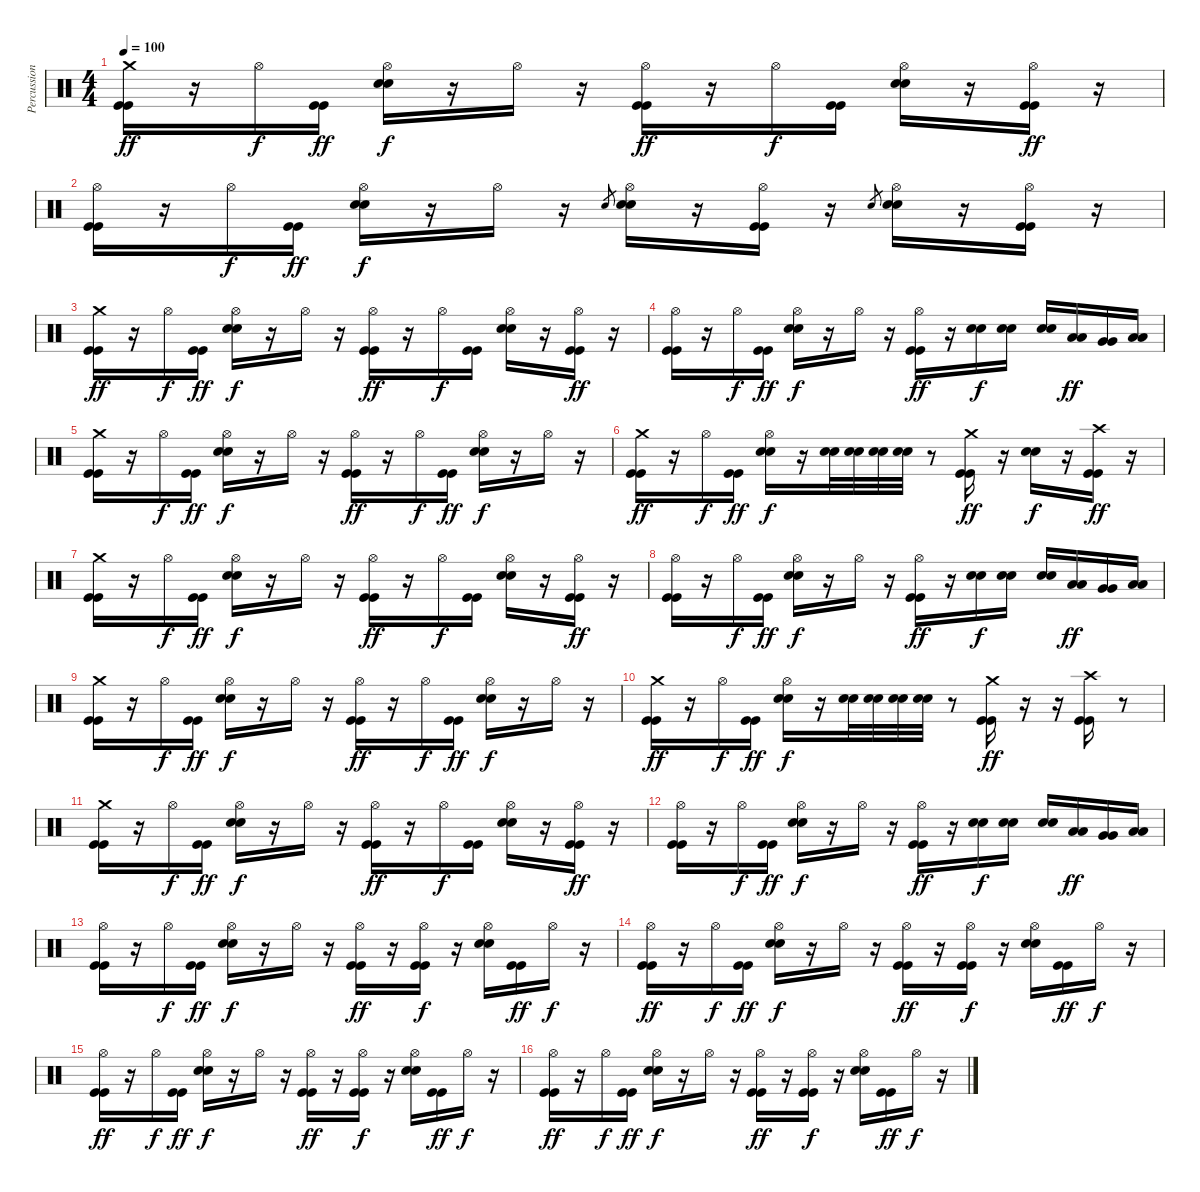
\track ("Percussions" "Percussion") {instrument percussion}
\staff {score}
\articulation defaults
\ts (4 4)
\tempo 100
\clef neutral
\ks c
("Crash medium (hit)" "Kick (hit)" "Kick (hit)").16{dy ff} r.16 "Hi-Hat (open)".16{dy f} ("Kick (hit)" "Kick (hit)").16{dy ff} ("Hi-Hat (open)" "Electric Snare (hit)" "Electric Snare (hit)").16{dy f} r.16 "Hi-Hat (open)".16 r.16 ("Hi-Hat (open)" "Kick (hit)" "Kick (hit)").16{dy ff} r.16 "Hi-Hat (open)".16{dy f} ("Kick (hit)" "Kick (hit)").16 ("Hi-Hat (open)" "Electric Snare (hit)" "Electric Snare (hit)").16 r.16 ("Hi-Hat (open)" "Kick (hit)" "Kick (hit)").16{dy ff} r.16 |
("Hi-Hat (open)" "Kick (hit)" "Kick (hit)").16 r.16 "Hi-Hat (open)".16{dy f} ("Kick (hit)" "Kick (hit)").16{dy ff} ("Hi-Hat (open)" "Electric Snare (hit)" "Electric Snare (hit)").16{dy f} r.16 "Hi-Hat (open)".16 r.16 "Electric Snare (hit)".8{gr} ("Hi-Hat (open)" "Electric Snare (hit)" "Electric Snare (hit)").16 r.16 ("Hi-Hat (open)" "Kick (hit)" "Kick (hit)").16 r.16 "Electric Snare (hit)".8{gr} ("Hi-Hat (open)" "Electric Snare (hit)" "Electric Snare (hit)").16 r.16 ("Hi-Hat (open)" "Kick (hit)" "Kick (hit)").16 r.16 |
("Crash medium (hit)" "Kick (hit)" "Kick (hit)").16{dy ff} r.16 "Hi-Hat (open)".16{dy f} ("Kick (hit)" "Kick (hit)").16{dy ff} ("Hi-Hat (open)" "Electric Snare (hit)" "Electric Snare (hit)").16{dy f} r.16 "Hi-Hat (open)".16 r.16 ("Hi-Hat (open)" "Kick (hit)" "Kick (hit)").16{dy ff} r.16 "Hi-Hat (open)".16{dy f} ("Kick (hit)" "Kick (hit)").16 ("Hi-Hat (open)" "Electric Snare (hit)" "Electric Snare (hit)").16 r.16 ("Hi-Hat (open)" "Kick (hit)" "Kick (hit)").16{dy ff} r.16 |
("Hi-Hat (open)" "Kick (hit)" "Kick (hit)").16 r.16 "Hi-Hat (open)".16{dy f} ("Kick (hit)" "Kick (hit)").16{dy ff} ("Hi-Hat (open)" "Electric Snare (hit)" "Electric Snare (hit)").16{dy f} r.16 "Hi-Hat (open)".16 r.16 ("Hi-Hat (open)" "Kick (hit)" "Kick (hit)").16{dy ff} r.16 ("Electric Snare (hit)" "Electric Snare (hit)").16{dy f} ("Electric Snare (hit)" "Electric Snare (hit)").16 ("Electric Snare (hit)" "Electric Snare (hit)").16 ("Low Tom (hit)" "Low Tom (hit)").16{dy ff} ("Very Low Tom (hit)" "Very Low Tom (hit)").16 ("Low Floor Tom (hit)" "Low Floor Tom (hit)").16 |
("Crash medium (hit)" "Kick (hit)" "Kick (hit)").16 r.16 "Hi-Hat (open)".16{dy f} ("Kick (hit)" "Kick (hit)").16{dy ff} ("Hi-Hat (open)" "Electric Snare (hit)" "Electric Snare (hit)").16{dy f} r.16 "Hi-Hat (open)".16 r.16 ("Hi-Hat (open)" "Kick (hit)" "Kick (hit)").16{dy ff} r.16 "Hi-Hat (open)".16{dy f} ("Kick (hit)" "Kick (hit)").16{dy ff} ("Hi-Hat (open)" "Electric Snare (hit)" "Electric Snare (hit)").16{dy f} r.16 "Hi-Hat (open)".16 r.16 |
("Crash medium (hit)" "Kick (hit)" "Kick (hit)").16{dy ff} r.16 "Hi-Hat (open)".16{dy f} ("Kick (hit)" "Kick (hit)").16{dy ff} ("Hi-Hat (open)" "Electric Snare (hit)" "Electric Snare (hit)").16{dy f} r.16 ("Electric Snare (hit)" "Electric Snare (hit)").32 ("Electric Snare (hit)" "Electric Snare (hit)").32 ("Electric Snare (hit)" "Electric Snare (hit)").32 ("Electric Snare (hit)" "Electric Snare (hit)").32 r.8 ("Crash medium (hit)" "Kick (hit)" "Kick (hit)").16{dy ff} r.16 ("Electric Snare (hit)" "Electric Snare (hit)").16{dy f} r.16 ("Crash high (hit)" "Kick (hit)" "Kick (hit)").16{dy ff} r.16 |
("Crash medium (hit)" "Kick (hit)" "Kick (hit)").16 r.16 "Hi-Hat (open)".16{dy f} ("Kick (hit)" "Kick (hit)").16{dy ff} ("Hi-Hat (open)" "Electric Snare (hit)" "Electric Snare (hit)").16{dy f} r.16 "Hi-Hat (open)".16 r.16 ("Hi-Hat (open)" "Kick (hit)" "Kick (hit)").16{dy ff} r.16 "Hi-Hat (open)".16{dy f} ("Kick (hit)" "Kick (hit)").16 ("Hi-Hat (open)" "Electric Snare (hit)" "Electric Snare (hit)").16 r.16 ("Hi-Hat (open)" "Kick (hit)" "Kick (hit)").16{dy ff} r.16 |
("Hi-Hat (open)" "Kick (hit)" "Kick (hit)").16 r.16 "Hi-Hat (open)".16{dy f} ("Kick (hit)" "Kick (hit)").16{dy ff} ("Hi-Hat (open)" "Electric Snare (hit)" "Electric Snare (hit)").16{dy f} r.16 "Hi-Hat (open)".16 r.16 ("Hi-Hat (open)" "Kick (hit)" "Kick (hit)").16{dy ff} r.16 ("Electric Snare (hit)" "Electric Snare (hit)").16{dy f} ("Electric Snare (hit)" "Electric Snare (hit)").16 ("Electric Snare (hit)" "Electric Snare (hit)").16 ("Low Tom (hit)" "Low Tom (hit)").16{dy ff} ("Very Low Tom (hit)" "Very Low Tom (hit)").16 ("Low Floor Tom (hit)" "Low Floor Tom (hit)").16 |
("Crash medium (hit)" "Kick (hit)" "Kick (hit)").16 r.16 "Hi-Hat (open)".16{dy f} ("Kick (hit)" "Kick (hit)").16{dy ff} ("Hi-Hat (open)" "Electric Snare (hit)" "Electric Snare (hit)").16{dy f} r.16 "Hi-Hat (open)".16 r.16 ("Hi-Hat (open)" "Kick (hit)" "Kick (hit)").16{dy ff} r.16 "Hi-Hat (open)".16{dy f} ("Kick (hit)" "Kick (hit)").16{dy ff} ("Hi-Hat (open)" "Electric Snare (hit)" "Electric Snare (hit)").16{dy f} r.16 "Hi-Hat (open)".16 r.16 |
("Crash medium (hit)" "Kick (hit)" "Kick (hit)").16{dy ff} r.16 "Hi-Hat (open)".16{dy f} ("Kick (hit)" "Kick (hit)").16{dy ff} ("Hi-Hat (open)" "Electric Snare (hit)" "Electric Snare (hit)").16{dy f} r.16 ("Electric Snare (hit)" "Electric Snare (hit)").32 ("Electric Snare (hit)" "Electric Snare (hit)").32 ("Electric Snare (hit)" "Electric Snare (hit)").32 ("Electric Snare (hit)" "Electric Snare (hit)").32 r.8 ("Crash medium (hit)" "Kick (hit)" "Kick (hit)").16{dy ff} r.16 r.16 ("Crash high (hit)" "Kick (hit)" "Kick (hit)").16 r.8 |
("Crash medium (hit)" "Kick (hit)" "Kick (hit)").16 r.16 "Hi-Hat (open)".16{dy f} ("Kick (hit)" "Kick (hit)").16{dy ff} ("Hi-Hat (open)" "Electric Snare (hit)" "Electric Snare (hit)").16{dy f} r.16 "Hi-Hat (open)".16 r.16 ("Hi-Hat (open)" "Kick (hit)" "Kick (hit)").16{dy ff} r.16 "Hi-Hat (open)".16{dy f} ("Kick (hit)" "Kick (hit)").16 ("Hi-Hat (open)" "Electric Snare (hit)" "Electric Snare (hit)").16 r.16 ("Hi-Hat (open)" "Kick (hit)" "Kick (hit)").16{dy ff} r.16 |
("Hi-Hat (open)" "Kick (hit)" "Kick (hit)").16 r.16 "Hi-Hat (open)".16{dy f} ("Kick (hit)" "Kick (hit)").16{dy ff} ("Hi-Hat (open)" "Electric Snare (hit)" "Electric Snare (hit)").16{dy f} r.16 "Hi-Hat (open)".16 r.16 ("Hi-Hat (open)" "Kick (hit)" "Kick (hit)").16{dy ff} r.16 ("Electric Snare (hit)" "Electric Snare (hit)").16{dy f} ("Electric Snare (hit)" "Electric Snare (hit)").16 ("Electric Snare (hit)" "Electric Snare (hit)").16 ("Low Tom (hit)" "Low Tom (hit)").16{dy ff} ("Very Low Tom (hit)" "Very Low Tom (hit)").16 ("Low Floor Tom (hit)" "Low Floor Tom (hit)").16 |
("Hi-Hat (open)" "Kick (hit)" "Kick (hit)").16 r.16 "Hi-Hat (open)".16{dy f} ("Kick (hit)" "Kick (hit)").16{dy ff} ("Hi-Hat (open)" "Electric Snare (hit)" "Electric Snare (hit)").16{dy f} r.16 "Hi-Hat (open)".16 r.16 ("Hi-Hat (open)" "Kick (hit)" "Kick (hit)").16{dy ff} r.16 ("Hi-Hat (open)" "Kick (hit)" "Kick (hit)").16{dy f} r.16 ("Hi-Hat (open)" "Electric Snare (hit)" "Electric Snare (hit)").16 ("Kick (hit)" "Kick (hit)").16{dy ff} "Hi-Hat (open)".16{dy f} r.16 |
("Hi-Hat (open)" "Kick (hit)" "Kick (hit)").16{dy ff} r.16 "Hi-Hat (open)".16{dy f} ("Kick (hit)" "Kick (hit)").16{dy ff} ("Hi-Hat (open)" "Electric Snare (hit)" "Electric Snare (hit)").16{dy f} r.16 "Hi-Hat (open)".16 r.16 ("Hi-Hat (open)" "Kick (hit)" "Kick (hit)").16{dy ff} r.16 ("Hi-Hat (open)" "Kick (hit)" "Kick (hit)").16{dy f} r.16 ("Hi-Hat (open)" "Electric Snare (hit)" "Electric Snare (hit)").16 ("Kick (hit)" "Kick (hit)").16{dy ff} "Hi-Hat (open)".16{dy f} r.16 |
("Hi-Hat (open)" "Kick (hit)" "Kick (hit)").16{dy ff} r.16 "Hi-Hat (open)".16{dy f} ("Kick (hit)" "Kick (hit)").16{dy ff} ("Hi-Hat (open)" "Electric Snare (hit)" "Electric Snare (hit)").16{dy f} r.16 "Hi-Hat (open)".16 r.16 ("Hi-Hat (open)" "Kick (hit)" "Kick (hit)").16{dy ff} r.16 ("Hi-Hat (open)" "Kick (hit)" "Kick (hit)").16{dy f} r.16 ("Hi-Hat (open)" "Electric Snare (hit)" "Electric Snare (hit)").16 ("Kick (hit)" "Kick (hit)").16{dy ff} "Hi-Hat (open)".16{dy f} r.16 |
("Hi-Hat (open)" "Kick (hit)" "Kick (hit)").16{dy ff} r.16 "Hi-Hat (open)".16{dy f} ("Kick (hit)" "Kick (hit)").16{dy ff} ("Hi-Hat (open)" "Electric Snare (hit)" "Electric Snare (hit)").16{dy f} r.16 "Hi-Hat (open)".16 r.16 ("Hi-Hat (open)" "Kick (hit)" "Kick (hit)").16{dy ff} r.16 ("Hi-Hat (open)" "Kick (hit)" "Kick (hit)").16{dy f} r.16 ("Hi-Hat (open)" "Electric Snare (hit)" "Electric Snare (hit)").16 ("Kick (hit)" "Kick (hit)").16{dy ff} "Hi-Hat (open)".16{dy f} r.16
